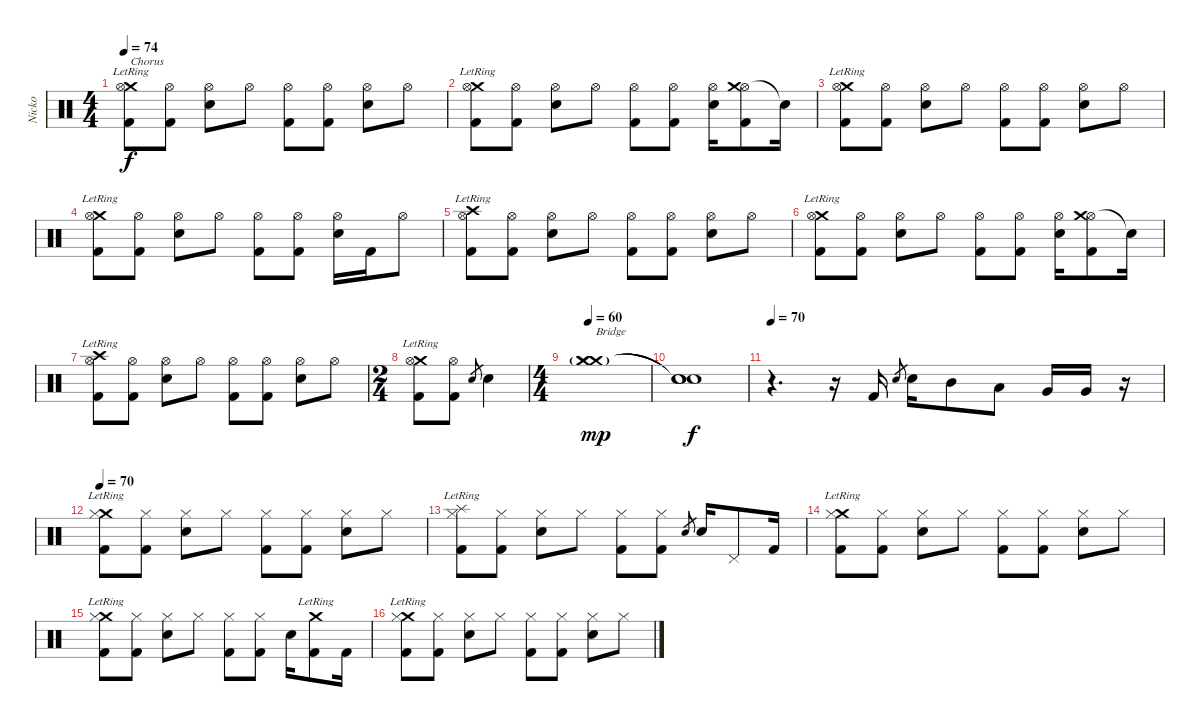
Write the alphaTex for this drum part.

\track ("Nicko" "Nicko") {instrument percussion}
\staff {score}
\articulation defaults
\ts (4 4)
\tempo 74
\clef neutral
\ks c
("Crash medium (hit)"{lr} "Hi-Hat (open)" "Kick (hit) 2").8{txt "Chorus" dy f} ("Hi-Hat (open)" "Kick (hit) 2").8 ("Hi-Hat (open)" "Electric Snare (hit)").8 "Hi-Hat (open)".8 ("Hi-Hat (open)" "Kick (hit) 2").8 ("Hi-Hat (open)" "Kick (hit) 2").8 ("Hi-Hat (open)" "Electric Snare (hit)").8 "Hi-Hat (open)".8 |
("Crash medium (hit)"{lr} "Hi-Hat (open)" "Kick (hit) 2").8 ("Hi-Hat (open)" "Kick (hit) 2").8 ("Hi-Hat (open)" "Electric Snare (hit)").8 "Hi-Hat (open)".8 ("Hi-Hat (open)" "Kick (hit) 2").8 ("Hi-Hat (open)" "Kick (hit) 2").8 ("Hi-Hat (open)" "Electric Snare (hit)").16 ("Hi-Hat (open)" "Crash medium (hit)" "Kick (hit) 2").8 "Snare (hit)"{t}.16 |
("Crash medium (hit)"{lr} "Hi-Hat (open)" "Kick (hit) 2").8 ("Hi-Hat (open)" "Kick (hit) 2").8 ("Hi-Hat (open)" "Electric Snare (hit)").8 "Hi-Hat (open)".8 ("Hi-Hat (open)" "Kick (hit) 2").8 ("Hi-Hat (open)" "Kick (hit) 2").8 ("Hi-Hat (open)" "Electric Snare (hit)").8 "Hi-Hat (open)".8 |
("Crash medium (hit)"{lr} "Hi-Hat (open)" "Kick (hit) 2").8 ("Hi-Hat (open)" "Kick (hit) 2").8 ("Hi-Hat (open)" "Electric Snare (hit)").8 "Hi-Hat (open)".8 ("Hi-Hat (open)" "Kick (hit) 2").8 ("Hi-Hat (open)" "Kick (hit) 2").8 ("Hi-Hat (open)" "Electric Snare (hit)").16 "Kick (hit) 2".16 "Hi-Hat (open)".8 |
("Crash high (hit)"{lr} "Hi-Hat (open)" "Kick (hit) 2").8 ("Hi-Hat (open)" "Kick (hit) 2").8 ("Hi-Hat (open)" "Electric Snare (hit)").8 "Hi-Hat (open)".8 ("Hi-Hat (open)" "Kick (hit) 2").8 ("Hi-Hat (open)" "Kick (hit) 2").8 ("Hi-Hat (open)" "Electric Snare (hit)").8 "Hi-Hat (open)".8 |
("Crash medium (hit)"{lr} "Hi-Hat (open)" "Kick (hit) 2").8 ("Hi-Hat (open)" "Kick (hit) 2").8 ("Hi-Hat (open)" "Electric Snare (hit)").8 "Hi-Hat (open)".8 ("Hi-Hat (open)" "Kick (hit) 2").8 ("Hi-Hat (open)" "Kick (hit) 2").8 ("Hi-Hat (open)" "Electric Snare (hit)").16 ("Hi-Hat (open)" "Crash medium (hit)" "Kick (hit) 2").8 "Snare (hit)"{t}.16 |
("Crash high (hit)"{lr} "Hi-Hat (open)" "Kick (hit) 2").8 ("Hi-Hat (open)" "Kick (hit) 2").8 ("Hi-Hat (open)" "Electric Snare (hit)").8 "Hi-Hat (open)".8 ("Hi-Hat (open)" "Kick (hit) 2").8 ("Hi-Hat (open)" "Kick (hit) 2").8 ("Hi-Hat (open)" "Electric Snare (hit)").8 "Hi-Hat (open)".8 |
\ts (2 4)
("Crash medium (hit)"{lr} "Hi-Hat (open)" "Kick (hit) 2").8 ("Hi-Hat (open)" "Kick (hit) 2").8 "Electric Snare (hit)".8{gr} "Electric Snare (hit)".4 |
\ts (4 4)
\tempo 67
\tempo 60
("Crash medium (hit)" "Crash medium (hit)"{g} "Crash medium (hit)"{g}).1{bd 120 txt "Bridge" dy mp} |
("Snare (hit)"{t} "Snare (hit)"{t} "Snare (hit)"{t}).1{dy f} |
\tempo 70
r.4{d} r.16 "Kick (hit) 2".16 "Electric Snare (hit)".8{gr} "Electric Snare (hit)".16 "Mid Tom (hit)".8 "Low Tom (hit)".8 "Very Low Tom (hit)".16 "Very Low Tom (hit)".16 r.16 |
\tempo 70
("Crash medium (hit)"{lr} "Hi-Hat (closed)" "Kick (hit) 2").8 ("Hi-Hat (closed)" "Kick (hit) 2").8 ("Hi-Hat (closed)" "Electric Snare (hit)").8 "Hi-Hat (closed)".8 ("Hi-Hat (closed)" "Kick (hit) 2").8 ("Hi-Hat (closed)" "Kick (hit) 2").8 ("Hi-Hat (closed)" "Electric Snare (hit)").8 "Hi-Hat (closed)".8 |
("Splash (hit)"{lr} "Hi-Hat (closed)" "Kick (hit) 2").8 ("Hi-Hat (closed)" "Kick (hit) 2").8 ("Hi-Hat (closed)" "Electric Snare (hit)").8 "Hi-Hat (closed)".8 ("Hi-Hat (closed)" "Kick (hit) 2").8 ("Hi-Hat (closed)" "Kick (hit) 2").8 "Electric Snare (hit)".8{gr} "Electric Snare (hit)".16 "Pedal Hi-Hat (hit)".8 "Kick (hit) 2".16 |
("Crash medium (hit)"{lr} "Hi-Hat (closed)" "Kick (hit) 2").8 ("Hi-Hat (closed)" "Kick (hit) 2").8 ("Hi-Hat (closed)" "Electric Snare (hit)").8 "Hi-Hat (closed)".8 ("Hi-Hat (closed)" "Kick (hit) 2").8 ("Hi-Hat (closed)" "Kick (hit) 2").8 ("Hi-Hat (closed)" "Electric Snare (hit)").8 "Hi-Hat (closed)".8 |
("Crash medium (hit)"{lr} "Hi-Hat (closed)" "Kick (hit) 2").8 ("Hi-Hat (closed)" "Kick (hit) 2").8 ("Hi-Hat (closed)" "Electric Snare (hit)").8 "Hi-Hat (closed)".8 ("Hi-Hat (closed)" "Kick (hit) 2").8 ("Hi-Hat (closed)" "Kick (hit) 2").8 "Electric Snare (hit)".16 ("Crash medium (hit)"{lr} "Kick (hit) 2").8 "Kick (hit) 2".16 |
("Crash medium (hit)"{lr} "Hi-Hat (closed)" "Kick (hit) 2").8 ("Hi-Hat (closed)" "Kick (hit) 2").8 ("Hi-Hat (closed)" "Electric Snare (hit)").8 "Hi-Hat (closed)".8 ("Hi-Hat (closed)" "Kick (hit) 2").8 ("Hi-Hat (closed)" "Kick (hit) 2").8 ("Hi-Hat (closed)" "Electric Snare (hit)").8 "Hi-Hat (closed)".8
